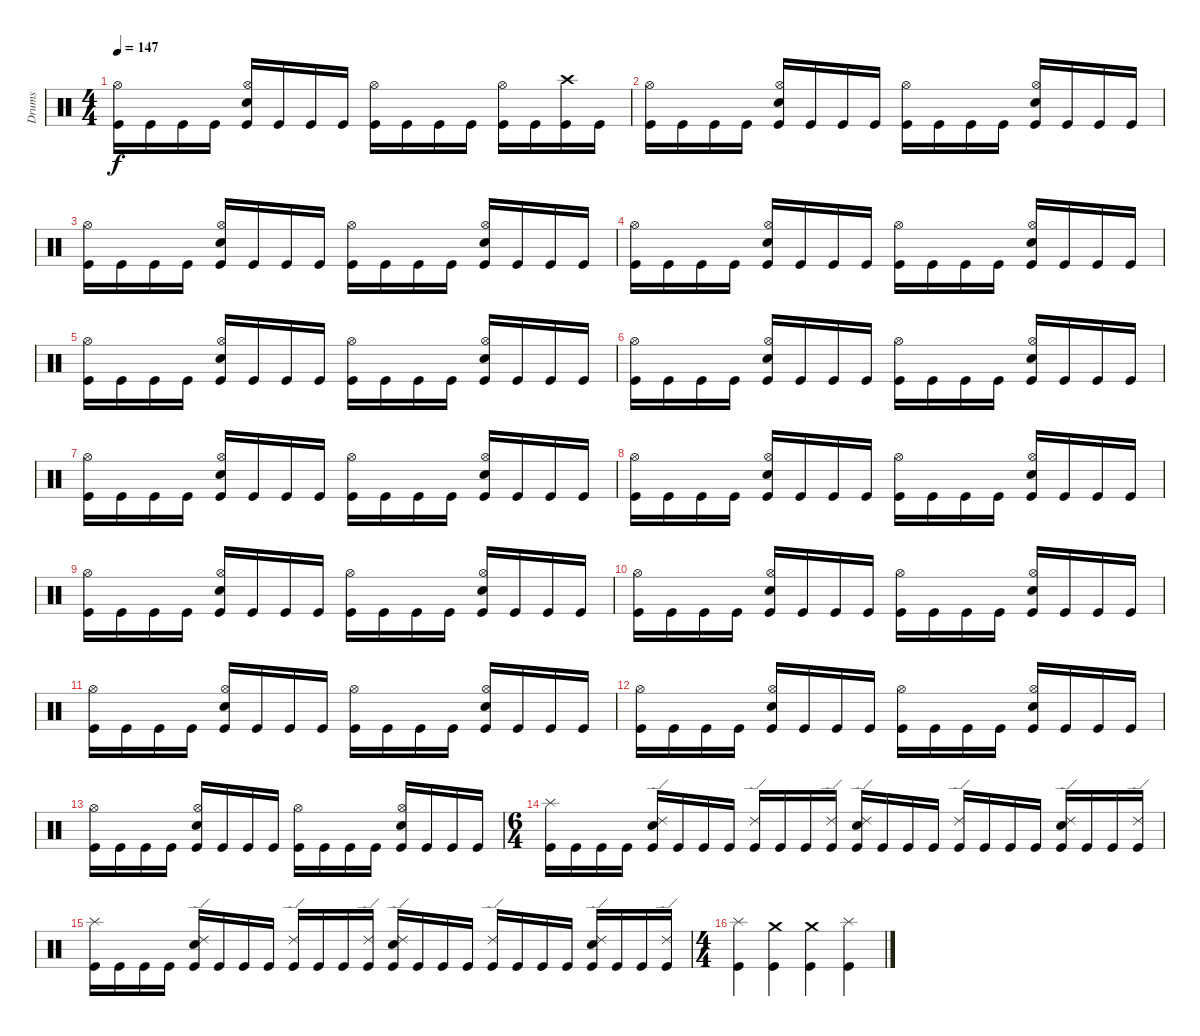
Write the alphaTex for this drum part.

\track ("Drums" "Drums") {instrument percussion}
\staff {score}
\articulation defaults
\ts (4 4)
\tempo 147
\clef neutral
\ks c
("Kick (hit)" "Hi-Hat (open)").16{dy f} "Kick (hit)".16 "Kick (hit)".16 "Kick (hit)".16 ("Snare (hit) 2" "Kick (hit)" "Hi-Hat (open)").16 "Kick (hit)".16 "Kick (hit)".16 "Kick (hit)".16 ("Kick (hit)" "Hi-Hat (open)").16 "Kick (hit)".16 "Kick (hit)".16 "Kick (hit)".16 ("Kick (hit)" "Hi-Hat (open)").16 "Kick (hit)".16 ("Kick (hit)" "Crash high (hit)").16 "Kick (hit)".16 |
("Hi-Hat (open)" "Kick (hit)").16 "Kick (hit)".16 "Kick (hit)".16 "Kick (hit)".16 ("Hi-Hat (open)" "Kick (hit)" "Snare (hit) 2").16 "Kick (hit)".16 "Kick (hit)".16 "Kick (hit)".16 ("Hi-Hat (open)" "Kick (hit)").16 "Kick (hit)".16 "Kick (hit)".16 "Kick (hit)".16 ("Snare (hit) 2" "Kick (hit)" "Hi-Hat (open)").16 "Kick (hit)".16 "Kick (hit)".16 "Kick (hit)".16 |
("Hi-Hat (open)" "Kick (hit)").16 "Kick (hit)".16 "Kick (hit)".16 "Kick (hit)".16 ("Hi-Hat (open)" "Kick (hit)" "Snare (hit) 2").16 "Kick (hit)".16 "Kick (hit)".16 "Kick (hit)".16 ("Kick (hit)" "Hi-Hat (open)").16 "Kick (hit)".16 "Kick (hit)".16 "Kick (hit)".16 ("Kick (hit)" "Hi-Hat (open)" "Snare (hit) 2").16 "Kick (hit)".16 "Kick (hit)".16 "Kick (hit)".16 |
("Kick (hit)" "Hi-Hat (open)").16 "Kick (hit)".16 "Kick (hit)".16 "Kick (hit)".16 ("Snare (hit) 2" "Kick (hit)" "Hi-Hat (open)").16 "Kick (hit)".16 "Kick (hit)".16 "Kick (hit)".16 ("Kick (hit)" "Hi-Hat (open)").16 "Kick (hit)".16 "Kick (hit)".16 "Kick (hit)".16 ("Hi-Hat (open)" "Kick (hit)" "Snare (hit) 2").16 "Kick (hit)".16 "Kick (hit)".16 "Kick (hit)".16 |
("Hi-Hat (open)" "Kick (hit)").16 "Kick (hit)".16 "Kick (hit)".16 "Kick (hit)".16 ("Hi-Hat (open)" "Kick (hit)" "Snare (hit) 2").16 "Kick (hit)".16 "Kick (hit)".16 "Kick (hit)".16 ("Kick (hit)" "Hi-Hat (open)").16 "Kick (hit)".16 "Kick (hit)".16 "Kick (hit)".16 ("Snare (hit) 2" "Hi-Hat (open)" "Kick (hit)").16 "Kick (hit)".16 "Kick (hit)".16 "Kick (hit)".16 |
("Kick (hit)" "Hi-Hat (open)").16 "Kick (hit)".16 "Kick (hit)".16 "Kick (hit)".16 ("Hi-Hat (open)" "Snare (hit) 2" "Kick (hit)").16 "Kick (hit)".16 "Kick (hit)".16 "Kick (hit)".16 ("Kick (hit)" "Hi-Hat (open)").16 "Kick (hit)".16 "Kick (hit)".16 "Kick (hit)".16 ("Hi-Hat (open)" "Snare (hit) 2" "Kick (hit)").16 "Kick (hit)".16 "Kick (hit)".16 "Kick (hit)".16 |
("Kick (hit)" "Hi-Hat (open)").16 "Kick (hit)".16 "Kick (hit)".16 "Kick (hit)".16 ("Snare (hit) 2" "Kick (hit)" "Hi-Hat (open)").16 "Kick (hit)".16 "Kick (hit)".16 "Kick (hit)".16 ("Kick (hit)" "Hi-Hat (open)").16 "Kick (hit)".16 "Kick (hit)".16 "Kick (hit)".16 ("Snare (hit) 2" "Hi-Hat (open)" "Kick (hit)").16 "Kick (hit)".16 "Kick (hit)".16 "Kick (hit)".16 |
("Hi-Hat (open)" "Kick (hit)").16 "Kick (hit)".16 "Kick (hit)".16 "Kick (hit)".16 ("Snare (hit) 2" "Hi-Hat (open)" "Kick (hit)").16 "Kick (hit)".16 "Kick (hit)".16 "Kick (hit)".16 ("Kick (hit)" "Hi-Hat (open)").16 "Kick (hit)".16 "Kick (hit)".16 "Kick (hit)".16 ("Hi-Hat (open)" "Snare (hit) 2" "Kick (hit)").16 "Kick (hit)".16 "Kick (hit)".16 "Kick (hit)".16 |
("Kick (hit)" "Hi-Hat (open)").16 "Kick (hit)".16 "Kick (hit)".16 "Kick (hit)".16 ("Snare (hit) 2" "Hi-Hat (open)" "Kick (hit)").16 "Kick (hit)".16 "Kick (hit)".16 "Kick (hit)".16 ("Kick (hit)" "Hi-Hat (open)").16 "Kick (hit)".16 "Kick (hit)".16 "Kick (hit)".16 ("Kick (hit)" "Hi-Hat (open)" "Snare (hit) 2").16 "Kick (hit)".16 "Kick (hit)".16 "Kick (hit)".16 |
("Kick (hit)" "Hi-Hat (open)").16 "Kick (hit)".16 "Kick (hit)".16 "Kick (hit)".16 ("Snare (hit) 2" "Hi-Hat (open)" "Kick (hit)").16 "Kick (hit)".16 "Kick (hit)".16 "Kick (hit)".16 ("Kick (hit)" "Hi-Hat (open)").16 "Kick (hit)".16 "Kick (hit)".16 "Kick (hit)".16 ("Hi-Hat (open)" "Kick (hit)" "Snare (hit) 2").16 "Kick (hit)".16 "Kick (hit)".16 "Kick (hit)".16 |
("Kick (hit)" "Hi-Hat (open)").16 "Kick (hit)".16 "Kick (hit)".16 "Kick (hit)".16 ("Hi-Hat (open)" "Snare (hit) 2" "Kick (hit)").16 "Kick (hit)".16 "Kick (hit)".16 "Kick (hit)".16 ("Kick (hit)" "Hi-Hat (open)").16 "Kick (hit)".16 "Kick (hit)".16 "Kick (hit)".16 ("Kick (hit)" "Snare (hit) 2" "Hi-Hat (open)").16 "Kick (hit)".16 "Kick (hit)".16 "Kick (hit)".16 |
("Kick (hit)" "Hi-Hat (open)").16 "Kick (hit)".16 "Kick (hit)".16 "Kick (hit)".16 ("Kick (hit)" "Snare (hit) 2" "Hi-Hat (open)").16 "Kick (hit)".16 "Kick (hit)".16 "Kick (hit)".16 ("Kick (hit)" "Hi-Hat (open)").16 "Kick (hit)".16 "Kick (hit)".16 "Kick (hit)".16 ("Kick (hit)" "Snare (hit) 2" "Hi-Hat (open)").16 "Kick (hit)".16 "Kick (hit)".16 "Kick (hit)".16 |
("Hi-Hat (open)" "Kick (hit)").16 "Kick (hit)".16 "Kick (hit)".16 "Kick (hit)".16 ("Hi-Hat (open)" "Kick (hit)" "Snare (hit) 2").16 "Kick (hit)".16 "Kick (hit)".16 "Kick (hit)".16 ("Kick (hit)" "Hi-Hat (open)").16 "Kick (hit)".16 "Kick (hit)".16 "Kick (hit)".16 ("Kick (hit)" "Hi-Hat (open)" "Snare (hit) 2").16 "Kick (hit)".16 "Kick (hit)".16 "Kick (hit)".16 |
\ts (6 4)
("Kick (hit)" "Splash (hit)").16 "Kick (hit)".16 "Kick (hit)".16 "Kick (hit)".16 ("Snare (hit) 2" "Kick (hit)" "Ride (edge) 2").16 "Kick (hit)".16 "Kick (hit)".16 "Kick (hit)".16 ("Ride (edge) 2" "Kick (hit)").16 "Kick (hit)".16 "Kick (hit)".16 ("Ride (edge) 2" "Kick (hit)").16 ("Kick (hit)" "Snare (hit) 2" "Ride (edge) 2").16 "Kick (hit)".16 "Kick (hit)".16 "Kick (hit)".16 ("Kick (hit)" "Ride (edge) 2").16 "Kick (hit)".16 "Kick (hit)".16 "Kick (hit)".16 ("Kick (hit)" "Snare (hit) 2" "Ride (edge) 2").16 "Kick (hit)".16 "Kick (hit)".16 ("Ride (edge) 2" "Kick (hit)").16 |
("Splash (hit)" "Kick (hit)").16 "Kick (hit)".16 "Kick (hit)".16 "Kick (hit)".16 ("Kick (hit)" "Snare (hit) 2" "Ride (edge) 2").16 "Kick (hit)".16 "Kick (hit)".16 "Kick (hit)".16 ("Kick (hit)" "Ride (edge) 2").16 "Kick (hit)".16 "Kick (hit)".16 ("Kick (hit)" "Ride (edge) 2").16 ("Snare (hit) 2" "Ride (edge) 2" "Kick (hit)").16 "Kick (hit)".16 "Kick (hit)".16 "Kick (hit)".16 ("Ride (edge) 2" "Kick (hit)").16 "Kick (hit)".16 "Kick (hit)".16 "Kick (hit)".16 ("Kick (hit)" "Snare (hit) 2" "Ride (edge) 2").16 "Kick (hit)".16 "Kick (hit)".16 ("Ride (edge) 2" "Kick (hit)").16 |
\ts (4 4)
("Kick (hit)" "Splash (hit)").4 ("Kick (hit)" "Crash medium (hit)").4 ("Crash medium (hit)" "Kick (hit)").4 ("Kick (hit)" "Splash (hit)").4
